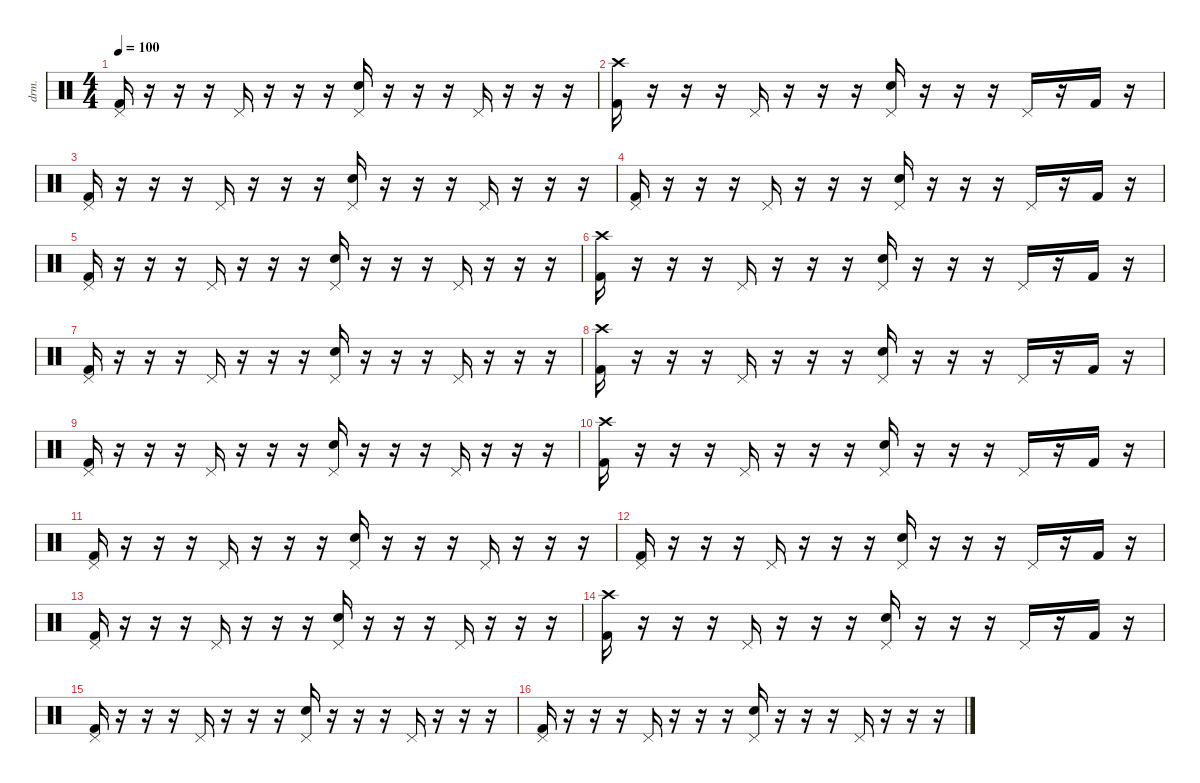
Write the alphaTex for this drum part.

\defaultSystemsLayout 4
\hideDynamics
\bracketExtendMode nobrackets
\otherSystemsTrackNameOrientation horizontal
\track ("Drums" "drm.") {instrument percussion}
\staff {score}
\articulation defaults
\ts (4 4)
\tempo 100
\clef neutral
\ks c
("Kick (hit) 2" "Pedal Hi-Hat (hit)").16{dy ff beam Up} r.16{beam Up} r.16{beam Up} r.16{beam Up} "Pedal Hi-Hat (hit)".16{beam Up} r.16{beam Up} r.16{beam Up} r.16{beam Up} ("Snare (hit) 2" "Pedal Hi-Hat (hit)").16{beam Up} r.16{beam Up} r.16{beam Up} r.16{beam Up} "Pedal Hi-Hat (hit)".16{beam Up} r.16{beam Up} r.16{beam Up} r.16{beam Up} |
("Kick (hit) 2" "Crash high (hit)").16{beam Down} r.16{beam Down} r.16{beam Down} r.16{beam Down} "Pedal Hi-Hat (hit)".16{beam Up} r.16{beam Up} r.16{beam Up} r.16{beam Up} ("Snare (hit) 2" "Pedal Hi-Hat (hit)").16{beam Up} r.16{beam Up} r.16{beam Up} r.16{beam Up} "Pedal Hi-Hat (hit)".16{beam Up} r.16{beam Up} "Kick (hit) 2".16{beam Up} r.16{beam Up} |
("Kick (hit) 2" "Pedal Hi-Hat (hit)").16{beam Up} r.16{beam Up} r.16{beam Up} r.16{beam Up} "Pedal Hi-Hat (hit)".16{beam Up} r.16{beam Up} r.16{beam Up} r.16{beam Up} ("Snare (hit) 2" "Pedal Hi-Hat (hit)").16{beam Up} r.16{beam Up} r.16{beam Up} r.16{beam Up} "Pedal Hi-Hat (hit)".16{beam Up} r.16{beam Up} r.16{beam Up} r.16{beam Up} |
("Kick (hit) 2" "Pedal Hi-Hat (hit)").16{beam Up} r.16{beam Up} r.16{beam Up} r.16{beam Up} "Pedal Hi-Hat (hit)".16{beam Up} r.16{beam Up} r.16{beam Up} r.16{beam Up} ("Snare (hit) 2" "Pedal Hi-Hat (hit)").16{beam Up} r.16{beam Up} r.16{beam Up} r.16{beam Up} "Pedal Hi-Hat (hit)".16{beam Up} r.16{beam Up} "Kick (hit) 2".16{beam Up} r.16{beam Up} |
("Kick (hit) 2" "Pedal Hi-Hat (hit)").16{beam Up} r.16{beam Up} r.16{beam Up} r.16{beam Up} "Pedal Hi-Hat (hit)".16{beam Up} r.16{beam Up} r.16{beam Up} r.16{beam Up} ("Snare (hit) 2" "Pedal Hi-Hat (hit)").16{beam Up} r.16{beam Up} r.16{beam Up} r.16{beam Up} "Pedal Hi-Hat (hit)".16{beam Up} r.16{beam Up} r.16{beam Up} r.16{beam Up} |
("Kick (hit) 2" "Crash high (hit)").16{beam Down} r.16{beam Down} r.16{beam Down} r.16{beam Down} "Pedal Hi-Hat (hit)".16{beam Up} r.16{beam Up} r.16{beam Up} r.16{beam Up} ("Snare (hit) 2" "Pedal Hi-Hat (hit)").16{beam Up} r.16{beam Up} r.16{beam Up} r.16{beam Up} "Pedal Hi-Hat (hit)".16{beam Up} r.16{beam Up} "Kick (hit) 2".16{beam Up} r.16{beam Up} |
("Kick (hit) 2" "Pedal Hi-Hat (hit)").16{beam Up} r.16{beam Up} r.16{beam Up} r.16{beam Up} "Pedal Hi-Hat (hit)".16{beam Up} r.16{beam Up} r.16{beam Up} r.16{beam Up} ("Snare (hit) 2" "Pedal Hi-Hat (hit)").16{beam Up} r.16{beam Up} r.16{beam Up} r.16{beam Up} "Pedal Hi-Hat (hit)".16{beam Up} r.16{beam Up} r.16{beam Up} r.16{beam Up} |
("Kick (hit) 2" "Crash high (hit)").16{beam Down} r.16{beam Down} r.16{beam Down} r.16{beam Down} "Pedal Hi-Hat (hit)".16{beam Up} r.16{beam Up} r.16{beam Up} r.16{beam Up} ("Snare (hit) 2" "Pedal Hi-Hat (hit)").16{beam Up} r.16{beam Up} r.16{beam Up} r.16{beam Up} "Pedal Hi-Hat (hit)".16{beam Up} r.16{beam Up} "Kick (hit) 2".16{beam Up} r.16{beam Up} |
("Kick (hit) 2" "Pedal Hi-Hat (hit)").16{beam Up} r.16{beam Up} r.16{beam Up} r.16{beam Up} "Pedal Hi-Hat (hit)".16{beam Up} r.16{beam Up} r.16{beam Up} r.16{beam Up} ("Snare (hit) 2" "Pedal Hi-Hat (hit)").16{beam Up} r.16{beam Up} r.16{beam Up} r.16{beam Up} "Pedal Hi-Hat (hit)".16{beam Up} r.16{beam Up} r.16{beam Up} r.16{beam Up} |
("Kick (hit) 2" "Crash high (hit)").16{beam Down} r.16{beam Down} r.16{beam Down} r.16{beam Down} "Pedal Hi-Hat (hit)".16{beam Up} r.16{beam Up} r.16{beam Up} r.16{beam Up} ("Snare (hit) 2" "Pedal Hi-Hat (hit)").16{beam Up} r.16{beam Up} r.16{beam Up} r.16{beam Up} "Pedal Hi-Hat (hit)".16{beam Up} r.16{beam Up} "Kick (hit) 2".16{beam Up} r.16{beam Up} |
("Kick (hit) 2" "Pedal Hi-Hat (hit)").16{beam Up} r.16{beam Up} r.16{beam Up} r.16{beam Up} "Pedal Hi-Hat (hit)".16{beam Up} r.16{beam Up} r.16{beam Up} r.16{beam Up} ("Snare (hit) 2" "Pedal Hi-Hat (hit)").16{beam Up} r.16{beam Up} r.16{beam Up} r.16{beam Up} "Pedal Hi-Hat (hit)".16{beam Up} r.16{beam Up} r.16{beam Up} r.16{beam Up} |
("Kick (hit) 2" "Pedal Hi-Hat (hit)").16{beam Up} r.16{beam Up} r.16{beam Up} r.16{beam Up} "Pedal Hi-Hat (hit)".16{beam Up} r.16{beam Up} r.16{beam Up} r.16{beam Up} ("Snare (hit) 2" "Pedal Hi-Hat (hit)").16{beam Up} r.16{beam Up} r.16{beam Up} r.16{beam Up} "Pedal Hi-Hat (hit)".16{beam Up} r.16{beam Up} "Kick (hit) 2".16{beam Up} r.16{beam Up} |
("Kick (hit) 2" "Pedal Hi-Hat (hit)").16{beam Up} r.16{beam Up} r.16{beam Up} r.16{beam Up} "Pedal Hi-Hat (hit)".16{beam Up} r.16{beam Up} r.16{beam Up} r.16{beam Up} ("Snare (hit) 2" "Pedal Hi-Hat (hit)").16{beam Up} r.16{beam Up} r.16{beam Up} r.16{beam Up} "Pedal Hi-Hat (hit)".16{beam Up} r.16{beam Up} r.16{beam Up} r.16{beam Up} |
("Kick (hit) 2" "Crash high (hit)").16{beam Down} r.16{beam Down} r.16{beam Down} r.16{beam Down} "Pedal Hi-Hat (hit)".16{beam Up} r.16{beam Up} r.16{beam Up} r.16{beam Up} ("Snare (hit) 2" "Pedal Hi-Hat (hit)").16{beam Up} r.16{beam Up} r.16{beam Up} r.16{beam Up} "Pedal Hi-Hat (hit)".16{beam Up} r.16{beam Up} "Kick (hit) 2".16{beam Up} r.16{beam Up} |
("Kick (hit) 2" "Pedal Hi-Hat (hit)").16{beam Up} r.16{beam Up} r.16{beam Up} r.16{beam Up} "Pedal Hi-Hat (hit)".16{beam Up} r.16{beam Up} r.16{beam Up} r.16{beam Up} ("Snare (hit) 2" "Pedal Hi-Hat (hit)").16{beam Up} r.16{beam Up} r.16{beam Up} r.16{beam Up} "Pedal Hi-Hat (hit)".16{beam Up} r.16{beam Up} r.16{beam Up} r.16{beam Up} |
("Kick (hit) 2" "Pedal Hi-Hat (hit)").16{beam Up} r.16{beam Up} r.16{beam Up} r.16{beam Up} "Pedal Hi-Hat (hit)".16{beam Up} r.16{beam Up} r.16{beam Up} r.16{beam Up} ("Snare (hit) 2" "Pedal Hi-Hat (hit)").16{beam Up} r.16{beam Up} r.16{beam Up} r.16{beam Up} "Pedal Hi-Hat (hit)".16{beam Up} r.16{beam Up} r.16{beam Up} r.16{beam Up}
